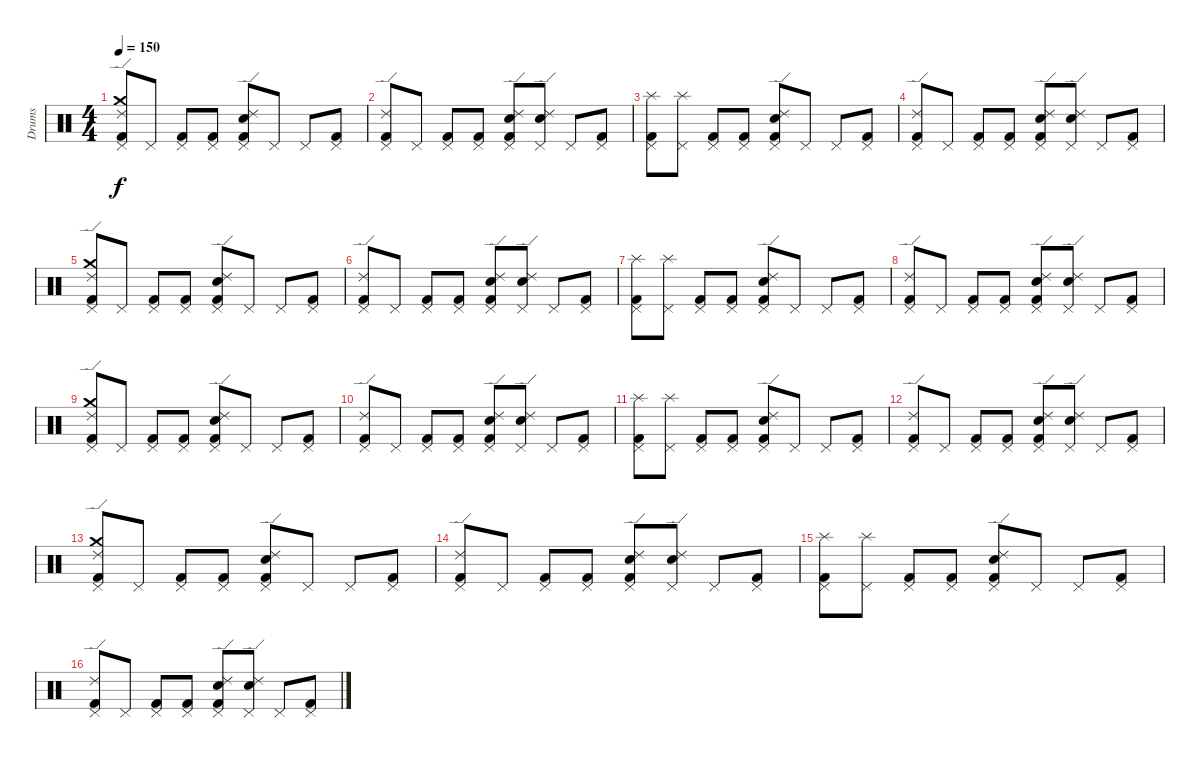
\track ("Drums" "Drums") {instrument percussion}
\staff {score}
\articulation defaults
\ts (4 4)
\tempo 150
\clef neutral
\ks c
("Kick (hit) 2" "Crash medium (hit)" "Ride (edge) 2" "Pedal Hi-Hat (hit)").8{dy f} "Pedal Hi-Hat (hit)".8 ("Kick (hit) 2" "Pedal Hi-Hat (hit)").8 ("Kick (hit) 2" "Pedal Hi-Hat (hit)").8 ("Kick (hit) 2" "Snare (hit) 2" "Ride (edge) 2" "Pedal Hi-Hat (hit)").8 "Pedal Hi-Hat (hit)".8 "Pedal Hi-Hat (hit)".8 ("Kick (hit) 2" "Pedal Hi-Hat (hit)").8 |
("Kick (hit) 2" "Ride (edge) 2" "Pedal Hi-Hat (hit)").8 "Pedal Hi-Hat (hit)".8 ("Kick (hit) 2" "Pedal Hi-Hat (hit)").8 ("Kick (hit) 2" "Pedal Hi-Hat (hit)").8 ("Kick (hit) 2" "Snare (hit) 2" "Ride (edge) 2" "Pedal Hi-Hat (hit)").8 ("Snare (hit) 2" "Ride (edge) 2" "Pedal Hi-Hat (hit)").8 "Pedal Hi-Hat (hit)".8 ("Kick (hit) 2" "Pedal Hi-Hat (hit)").8 |
("Kick (hit) 2" "Splash (hit)" "Pedal Hi-Hat (hit)").8 ("Splash (hit)" "Pedal Hi-Hat (hit)").8 ("Kick (hit) 2" "Pedal Hi-Hat (hit)").8 ("Kick (hit) 2" "Pedal Hi-Hat (hit)").8 ("Kick (hit) 2" "Snare (hit) 2" "Ride (edge) 2" "Pedal Hi-Hat (hit)").8 "Pedal Hi-Hat (hit)".8 "Pedal Hi-Hat (hit)".8 ("Kick (hit) 2" "Pedal Hi-Hat (hit)").8 |
("Kick (hit) 2" "Ride (edge) 2" "Pedal Hi-Hat (hit)").8 "Pedal Hi-Hat (hit)".8 ("Kick (hit) 2" "Pedal Hi-Hat (hit)").8 ("Kick (hit) 2" "Pedal Hi-Hat (hit)").8 ("Kick (hit) 2" "Snare (hit) 2" "Ride (edge) 2" "Pedal Hi-Hat (hit)").8 ("Snare (hit) 2" "Ride (edge) 2" "Pedal Hi-Hat (hit)").8 "Pedal Hi-Hat (hit)".8 ("Kick (hit) 2" "Pedal Hi-Hat (hit)").8 |
("Kick (hit) 2" "Crash medium (hit)" "Ride (edge) 2" "Pedal Hi-Hat (hit)").8 "Pedal Hi-Hat (hit)".8 ("Kick (hit) 2" "Pedal Hi-Hat (hit)").8 ("Kick (hit) 2" "Pedal Hi-Hat (hit)").8 ("Kick (hit) 2" "Snare (hit) 2" "Ride (edge) 2" "Pedal Hi-Hat (hit)").8 "Pedal Hi-Hat (hit)".8 "Pedal Hi-Hat (hit)".8 ("Kick (hit) 2" "Pedal Hi-Hat (hit)").8 |
("Kick (hit) 2" "Ride (edge) 2" "Pedal Hi-Hat (hit)").8 "Pedal Hi-Hat (hit)".8 ("Kick (hit) 2" "Pedal Hi-Hat (hit)").8 ("Kick (hit) 2" "Pedal Hi-Hat (hit)").8 ("Kick (hit) 2" "Snare (hit) 2" "Ride (edge) 2" "Pedal Hi-Hat (hit)").8 ("Snare (hit) 2" "Ride (edge) 2" "Pedal Hi-Hat (hit)").8 "Pedal Hi-Hat (hit)".8 ("Kick (hit) 2" "Pedal Hi-Hat (hit)").8 |
("Kick (hit) 2" "Splash (hit)" "Pedal Hi-Hat (hit)").8 ("Splash (hit)" "Pedal Hi-Hat (hit)").8 ("Kick (hit) 2" "Pedal Hi-Hat (hit)").8 ("Kick (hit) 2" "Pedal Hi-Hat (hit)").8 ("Kick (hit) 2" "Snare (hit) 2" "Ride (edge) 2" "Pedal Hi-Hat (hit)").8 "Pedal Hi-Hat (hit)".8 "Pedal Hi-Hat (hit)".8 ("Kick (hit) 2" "Pedal Hi-Hat (hit)").8 |
("Kick (hit) 2" "Ride (edge) 2" "Pedal Hi-Hat (hit)").8 "Pedal Hi-Hat (hit)".8 ("Kick (hit) 2" "Pedal Hi-Hat (hit)").8 ("Kick (hit) 2" "Pedal Hi-Hat (hit)").8 ("Kick (hit) 2" "Snare (hit) 2" "Ride (edge) 2" "Pedal Hi-Hat (hit)").8 ("Snare (hit) 2" "Ride (edge) 2" "Pedal Hi-Hat (hit)").8 "Pedal Hi-Hat (hit)".8 ("Kick (hit) 2" "Pedal Hi-Hat (hit)").8 |
("Kick (hit) 2" "Crash medium (hit)" "Ride (edge) 2" "Pedal Hi-Hat (hit)").8 "Pedal Hi-Hat (hit)".8 ("Kick (hit) 2" "Pedal Hi-Hat (hit)").8 ("Kick (hit) 2" "Pedal Hi-Hat (hit)").8 ("Kick (hit) 2" "Snare (hit) 2" "Ride (edge) 2" "Pedal Hi-Hat (hit)").8 "Pedal Hi-Hat (hit)".8 "Pedal Hi-Hat (hit)".8 ("Kick (hit) 2" "Pedal Hi-Hat (hit)").8 |
("Kick (hit) 2" "Ride (edge) 2" "Pedal Hi-Hat (hit)").8 "Pedal Hi-Hat (hit)".8 ("Kick (hit) 2" "Pedal Hi-Hat (hit)").8 ("Kick (hit) 2" "Pedal Hi-Hat (hit)").8 ("Kick (hit) 2" "Snare (hit) 2" "Ride (edge) 2" "Pedal Hi-Hat (hit)").8 ("Snare (hit) 2" "Ride (edge) 2" "Pedal Hi-Hat (hit)").8 "Pedal Hi-Hat (hit)".8 ("Kick (hit) 2" "Pedal Hi-Hat (hit)").8 |
("Kick (hit) 2" "Splash (hit)" "Pedal Hi-Hat (hit)").8 ("Splash (hit)" "Pedal Hi-Hat (hit)").8 ("Kick (hit) 2" "Pedal Hi-Hat (hit)").8 ("Kick (hit) 2" "Pedal Hi-Hat (hit)").8 ("Kick (hit) 2" "Snare (hit) 2" "Ride (edge) 2" "Pedal Hi-Hat (hit)").8 "Pedal Hi-Hat (hit)".8 "Pedal Hi-Hat (hit)".8 ("Kick (hit) 2" "Pedal Hi-Hat (hit)").8 |
("Kick (hit) 2" "Ride (edge) 2" "Pedal Hi-Hat (hit)").8 "Pedal Hi-Hat (hit)".8 ("Kick (hit) 2" "Pedal Hi-Hat (hit)").8 ("Kick (hit) 2" "Pedal Hi-Hat (hit)").8 ("Kick (hit) 2" "Snare (hit) 2" "Ride (edge) 2" "Pedal Hi-Hat (hit)").8 ("Snare (hit) 2" "Ride (edge) 2" "Pedal Hi-Hat (hit)").8 "Pedal Hi-Hat (hit)".8 ("Kick (hit) 2" "Pedal Hi-Hat (hit)").8 |
("Kick (hit) 2" "Crash medium (hit)" "Ride (edge) 2" "Pedal Hi-Hat (hit)").8 "Pedal Hi-Hat (hit)".8 ("Kick (hit) 2" "Pedal Hi-Hat (hit)").8 ("Kick (hit) 2" "Pedal Hi-Hat (hit)").8 ("Kick (hit) 2" "Snare (hit) 2" "Ride (edge) 2" "Pedal Hi-Hat (hit)").8 "Pedal Hi-Hat (hit)".8 "Pedal Hi-Hat (hit)".8 ("Kick (hit) 2" "Pedal Hi-Hat (hit)").8 |
("Kick (hit) 2" "Ride (edge) 2" "Pedal Hi-Hat (hit)").8 "Pedal Hi-Hat (hit)".8 ("Kick (hit) 2" "Pedal Hi-Hat (hit)").8 ("Kick (hit) 2" "Pedal Hi-Hat (hit)").8 ("Kick (hit) 2" "Snare (hit) 2" "Ride (edge) 2" "Pedal Hi-Hat (hit)").8 ("Snare (hit) 2" "Ride (edge) 2" "Pedal Hi-Hat (hit)").8 "Pedal Hi-Hat (hit)".8 ("Kick (hit) 2" "Pedal Hi-Hat (hit)").8 |
("Kick (hit) 2" "Splash (hit)" "Pedal Hi-Hat (hit)").8 ("Splash (hit)" "Pedal Hi-Hat (hit)").8 ("Kick (hit) 2" "Pedal Hi-Hat (hit)").8 ("Kick (hit) 2" "Pedal Hi-Hat (hit)").8 ("Kick (hit) 2" "Snare (hit) 2" "Ride (edge) 2" "Pedal Hi-Hat (hit)").8 "Pedal Hi-Hat (hit)".8 "Pedal Hi-Hat (hit)".8 ("Kick (hit) 2" "Pedal Hi-Hat (hit)").8 |
("Kick (hit) 2" "Ride (edge) 2" "Pedal Hi-Hat (hit)").8 "Pedal Hi-Hat (hit)".8 ("Kick (hit) 2" "Pedal Hi-Hat (hit)").8 ("Kick (hit) 2" "Pedal Hi-Hat (hit)").8 ("Kick (hit) 2" "Snare (hit) 2" "Ride (edge) 2" "Pedal Hi-Hat (hit)").8 ("Snare (hit) 2" "Ride (edge) 2" "Pedal Hi-Hat (hit)").8 "Pedal Hi-Hat (hit)".8 ("Kick (hit) 2" "Pedal Hi-Hat (hit)").8
